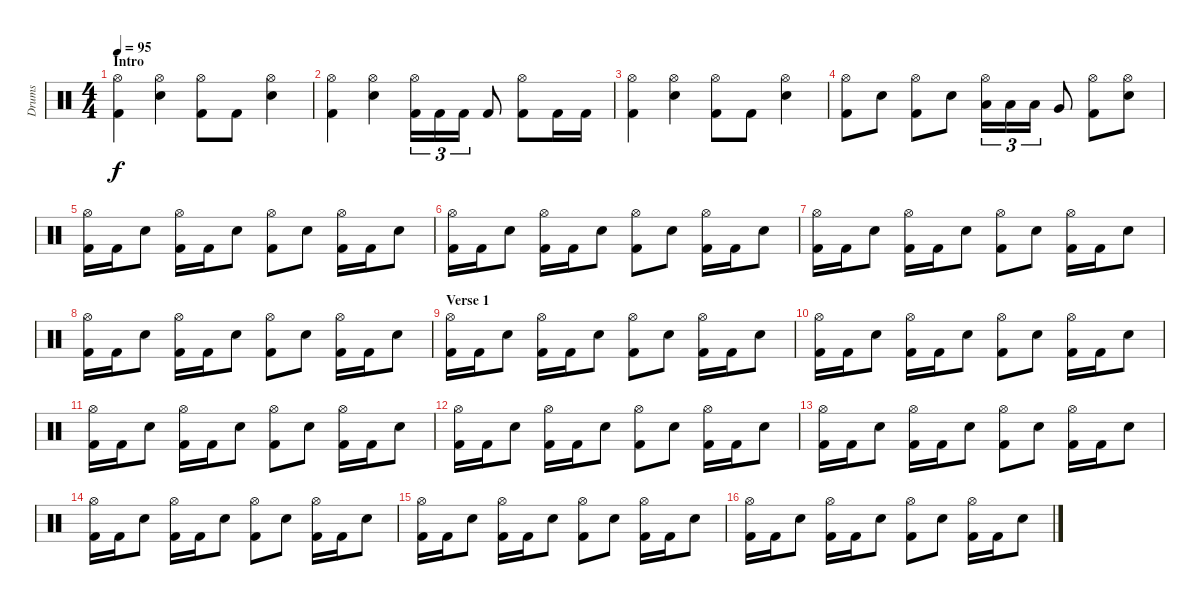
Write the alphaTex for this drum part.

\track ("Drums" "Drums") {instrument percussion}
\staff {score}
\articulation defaults
\ts (4 4)
\section ("" "Intro")
\tempo 95
\clef neutral
\ks c
("Kick (hit) 2" "Hi-Hat (open)").4{dy f} ("Electric Snare (hit)" "Hi-Hat (open)").4 ("Kick (hit) 2" "Hi-Hat (open)").8 "Kick (hit) 2".8 ("Electric Snare (hit)" "Hi-Hat (open)").4 |
("Kick (hit) 2" "Hi-Hat (open)").4 ("Electric Snare (hit)" "Hi-Hat (open)").4 ("Kick (hit) 2" "Hi-Hat (open)").16{tu (3 2)} "Kick (hit) 2".16{tu (3 2)} "Kick (hit) 2".16{tu (3 2)} "Kick (hit) 2".8 ("Kick (hit) 2" "Hi-Hat (open)").8 "Kick (hit) 2".16 "Kick (hit) 2".16 |
("Kick (hit) 2" "Hi-Hat (open)").4 ("Electric Snare (hit)" "Hi-Hat (open)").4 ("Kick (hit) 2" "Hi-Hat (open)").8 "Kick (hit) 2".8 ("Electric Snare (hit)" "Hi-Hat (open)").4 |
("Kick (hit) 2" "Hi-Hat (open)").8 "Electric Snare (hit)".8 ("Kick (hit) 2" "Hi-Hat (open)").8 "Electric Snare (hit)".8 ("Low Tom (hit)" "Hi-Hat (open)").16{tu (3 2)} "Low Tom (hit)".16{tu (3 2)} "Low Tom (hit)".16{tu (3 2)} "Very Low Tom (hit)".8 ("Kick (hit) 2" "Hi-Hat (open)").8 ("Electric Snare (hit)" "Hi-Hat (open)").8 |
("Kick (hit) 2" "Hi-Hat (open)").16 "Kick (hit) 2".16 "Electric Snare (hit)".8 ("Kick (hit) 2" "Hi-Hat (open)").16 "Kick (hit) 2".16 "Electric Snare (hit)".8 ("Kick (hit) 2" "Hi-Hat (open)").8 "Electric Snare (hit)".8 ("Kick (hit) 2" "Hi-Hat (open)").16 "Kick (hit) 2".16 "Electric Snare (hit)".8 |
("Kick (hit) 2" "Hi-Hat (open)").16 "Kick (hit) 2".16 "Electric Snare (hit)".8 ("Kick (hit) 2" "Hi-Hat (open)").16 "Kick (hit) 2".16 "Electric Snare (hit)".8 ("Kick (hit) 2" "Hi-Hat (open)").8 "Electric Snare (hit)".8 ("Kick (hit) 2" "Hi-Hat (open)").16 "Kick (hit) 2".16 "Electric Snare (hit)".8 |
("Kick (hit) 2" "Hi-Hat (open)").16 "Kick (hit) 2".16 "Electric Snare (hit)".8 ("Kick (hit) 2" "Hi-Hat (open)").16 "Kick (hit) 2".16 "Electric Snare (hit)".8 ("Kick (hit) 2" "Hi-Hat (open)").8 "Electric Snare (hit)".8 ("Kick (hit) 2" "Hi-Hat (open)").16 "Kick (hit) 2".16 "Electric Snare (hit)".8 |
("Kick (hit) 2" "Hi-Hat (open)").16 "Kick (hit) 2".16 "Electric Snare (hit)".8 ("Kick (hit) 2" "Hi-Hat (open)").16 "Kick (hit) 2".16 "Electric Snare (hit)".8 ("Kick (hit) 2" "Hi-Hat (open)").8 "Electric Snare (hit)".8 ("Kick (hit) 2" "Hi-Hat (open)").16 "Kick (hit) 2".16 "Electric Snare (hit)".8 |
\section ("" "Verse 1")
("Kick (hit) 2" "Hi-Hat (open)").16 "Kick (hit) 2".16 "Electric Snare (hit)".8 ("Kick (hit) 2" "Hi-Hat (open)").16 "Kick (hit) 2".16 "Electric Snare (hit)".8 ("Kick (hit) 2" "Hi-Hat (open)").8 "Electric Snare (hit)".8 ("Kick (hit) 2" "Hi-Hat (open)").16 "Kick (hit) 2".16 "Electric Snare (hit)".8 |
("Kick (hit) 2" "Hi-Hat (open)").16 "Kick (hit) 2".16 "Electric Snare (hit)".8 ("Kick (hit) 2" "Hi-Hat (open)").16 "Kick (hit) 2".16 "Electric Snare (hit)".8 ("Kick (hit) 2" "Hi-Hat (open)").8 "Electric Snare (hit)".8 ("Kick (hit) 2" "Hi-Hat (open)").16 "Kick (hit) 2".16 "Electric Snare (hit)".8 |
("Kick (hit) 2" "Hi-Hat (open)").16 "Kick (hit) 2".16 "Electric Snare (hit)".8 ("Kick (hit) 2" "Hi-Hat (open)").16 "Kick (hit) 2".16 "Electric Snare (hit)".8 ("Kick (hit) 2" "Hi-Hat (open)").8 "Electric Snare (hit)".8 ("Kick (hit) 2" "Hi-Hat (open)").16 "Kick (hit) 2".16 "Electric Snare (hit)".8 |
("Kick (hit) 2" "Hi-Hat (open)").16 "Kick (hit) 2".16 "Electric Snare (hit)".8 ("Kick (hit) 2" "Hi-Hat (open)").16 "Kick (hit) 2".16 "Electric Snare (hit)".8 ("Kick (hit) 2" "Hi-Hat (open)").8 "Electric Snare (hit)".8 ("Kick (hit) 2" "Hi-Hat (open)").16 "Kick (hit) 2".16 "Electric Snare (hit)".8 |
("Kick (hit) 2" "Hi-Hat (open)").16 "Kick (hit) 2".16 "Electric Snare (hit)".8 ("Kick (hit) 2" "Hi-Hat (open)").16 "Kick (hit) 2".16 "Electric Snare (hit)".8 ("Kick (hit) 2" "Hi-Hat (open)").8 "Electric Snare (hit)".8 ("Kick (hit) 2" "Hi-Hat (open)").16 "Kick (hit) 2".16 "Electric Snare (hit)".8 |
("Kick (hit) 2" "Hi-Hat (open)").16 "Kick (hit) 2".16 "Electric Snare (hit)".8 ("Kick (hit) 2" "Hi-Hat (open)").16 "Kick (hit) 2".16 "Electric Snare (hit)".8 ("Kick (hit) 2" "Hi-Hat (open)").8 "Electric Snare (hit)".8 ("Kick (hit) 2" "Hi-Hat (open)").16 "Kick (hit) 2".16 "Electric Snare (hit)".8 |
("Kick (hit) 2" "Hi-Hat (open)").16 "Kick (hit) 2".16 "Electric Snare (hit)".8 ("Kick (hit) 2" "Hi-Hat (open)").16 "Kick (hit) 2".16 "Electric Snare (hit)".8 ("Kick (hit) 2" "Hi-Hat (open)").8 "Electric Snare (hit)".8 ("Kick (hit) 2" "Hi-Hat (open)").16 "Kick (hit) 2".16 "Electric Snare (hit)".8 |
("Kick (hit) 2" "Hi-Hat (open)").16 "Kick (hit) 2".16 "Electric Snare (hit)".8 ("Kick (hit) 2" "Hi-Hat (open)").16 "Kick (hit) 2".16 "Electric Snare (hit)".8 ("Kick (hit) 2" "Hi-Hat (open)").8 "Electric Snare (hit)".8 ("Kick (hit) 2" "Hi-Hat (open)").16 "Kick (hit) 2".16 "Electric Snare (hit)".8
